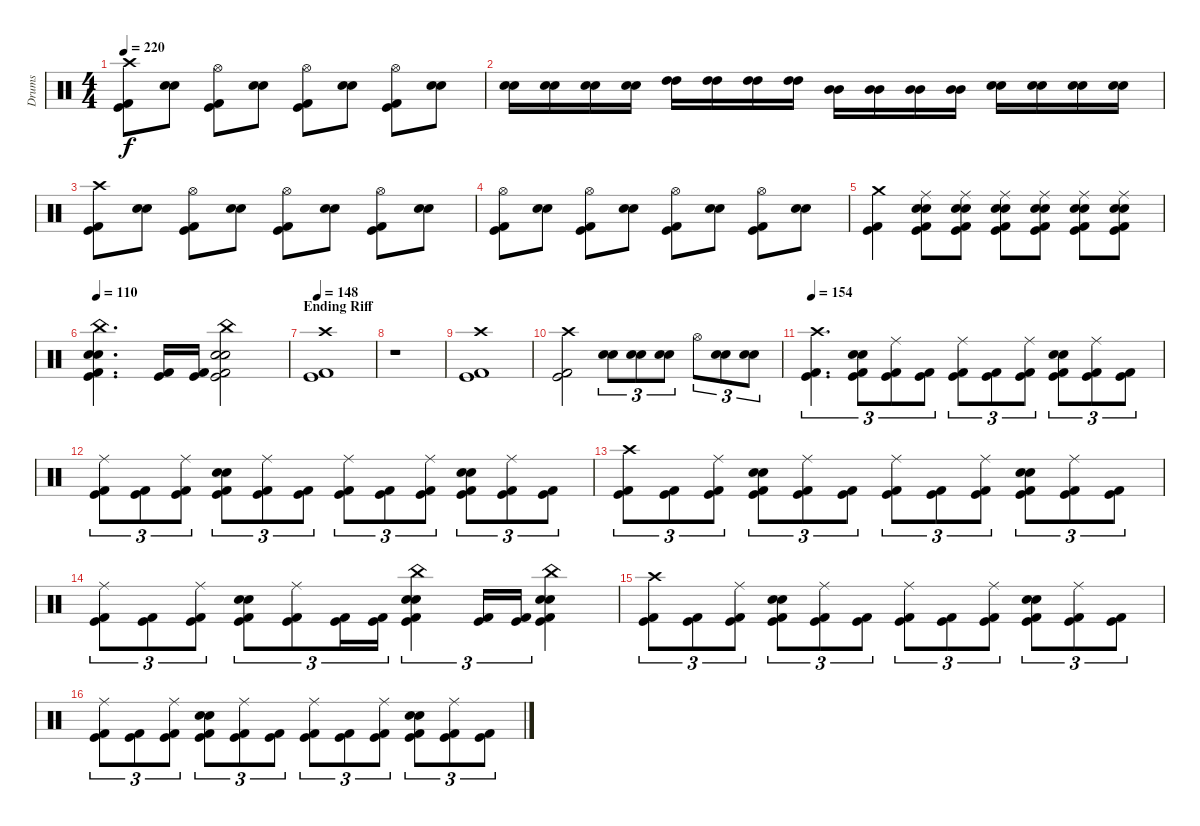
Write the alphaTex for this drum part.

\track ("Drums" "Drums") {instrument percussion}
\staff {score}
\articulation defaults
\ts (4 4)
\tempo 220
\clef neutral
\ks c
("Crash high (hit)" "Kick (hit) 2" "Kick (hit)").8{dy f} ("Electric Snare (hit)" "Electric Snare (hit)").8 ("Hi-Hat (open)" "Kick (hit) 2" "Kick (hit)").8 ("Electric Snare (hit)" "Electric Snare (hit)").8 ("Hi-Hat (open)" "Kick (hit) 2" "Kick (hit)").8 ("Electric Snare (hit)" "Electric Snare (hit)").8 ("Hi-Hat (open)" "Kick (hit) 2" "Kick (hit)").8 ("Electric Snare (hit)" "Electric Snare (hit)").8 |
("Electric Snare (hit)" "Electric Snare (hit)").16 ("Electric Snare (hit)" "Electric Snare (hit)").16 ("Electric Snare (hit)" "Electric Snare (hit)").16 ("Electric Snare (hit)" "Electric Snare (hit)").16 ("High Tom (hit)" "High Tom (hit)").16 ("High Tom (hit)" "High Tom (hit)").16 ("High Tom (hit)" "High Tom (hit)").16 ("High Tom (hit)" "High Tom (hit)").16 ("Mid Tom (hit)" "Mid Tom (hit)").16 ("Mid Tom (hit)" "Mid Tom (hit)").16 ("Mid Tom (hit)" "Mid Tom (hit)").16 ("Mid Tom (hit)" "Mid Tom (hit)").16 ("Electric Snare (hit)" "Electric Snare (hit)").16 ("Electric Snare (hit)" "Electric Snare (hit)").16 ("Electric Snare (hit)" "Electric Snare (hit)").16 ("Electric Snare (hit)" "Electric Snare (hit)").16 |
("Crash high (hit)" "Kick (hit) 2" "Kick (hit)").8 ("Electric Snare (hit)" "Electric Snare (hit)").8 ("Hi-Hat (open)" "Kick (hit) 2" "Kick (hit)").8 ("Electric Snare (hit)" "Electric Snare (hit)").8 ("Hi-Hat (open)" "Kick (hit) 2" "Kick (hit)").8 ("Electric Snare (hit)" "Electric Snare (hit)").8 ("Hi-Hat (open)" "Kick (hit) 2" "Kick (hit)").8 ("Electric Snare (hit)" "Electric Snare (hit)").8 |
("Hi-Hat (open)" "Kick (hit) 2" "Kick (hit)").8 ("Electric Snare (hit)" "Electric Snare (hit)").8 ("Hi-Hat (open)" "Kick (hit) 2" "Kick (hit)").8 ("Electric Snare (hit)" "Electric Snare (hit)").8 ("Hi-Hat (open)" "Kick (hit) 2" "Kick (hit)").8 ("Electric Snare (hit)" "Electric Snare (hit)").8 ("Hi-Hat (open)" "Kick (hit) 2" "Kick (hit)").8 ("Electric Snare (hit)" "Electric Snare (hit)").8 |
("Crash medium (hit)" "Kick (hit) 2" "Kick (hit)").4 ("Ride (middle)" "Electric Snare (hit)" "Electric Snare (hit)" "Kick (hit) 2" "Kick (hit)").8 ("Ride (middle)" "Electric Snare (hit)" "Electric Snare (hit)" "Kick (hit) 2" "Kick (hit)").8 ("Ride (middle)" "Electric Snare (hit)" "Electric Snare (hit)" "Kick (hit) 2" "Kick (hit)").8 ("Ride (middle)" "Electric Snare (hit)" "Electric Snare (hit)" "Kick (hit) 2" "Kick (hit)").8 ("Ride (middle)" "Electric Snare (hit)" "Electric Snare (hit)" "Kick (hit) 2" "Kick (hit)").8 ("Ride (middle)" "Electric Snare (hit)" "Electric Snare (hit)" "Kick (hit) 2" "Kick (hit)").8 |
\tempo 110
("China (hit)" "Electric Snare (hit)" "Electric Snare (hit)" "Kick (hit) 2" "Kick (hit)").4{d} ("Kick (hit) 2" "Kick (hit)").16 ("Kick (hit) 2" "Kick (hit)").16 ("China (hit)" "Electric Snare (hit)" "Electric Snare (hit)" "Kick (hit) 2" "Kick (hit)").2 |
\section ("" "Ending Riff")
\tempo 148
("Crash high (hit)" "Kick (hit) 2" "Kick (hit)").1 |
r.1 |
("Crash high (hit)" "Kick (hit) 2" "Kick (hit)").1 |
("Crash high (hit)" "Kick (hit) 2" "Kick (hit)").2 ("Electric Snare (hit)" "Electric Snare (hit)").8{tu (3 2)} ("Electric Snare (hit)" "Electric Snare (hit)").8{tu (3 2)} ("Electric Snare (hit)" "Electric Snare (hit)").8{tu (3 2)} "Hi-Hat (open)".8{tu (3 2)} ("Electric Snare (hit)" "Electric Snare (hit)").8{tu (3 2)} ("Electric Snare (hit)" "Electric Snare (hit)").8{tu (3 2)} |
\tempo 154
("Crash high (hit)" "Kick (hit) 2" "Kick (hit)").4{d tu (3 2)} ("Electric Snare (hit)" "Electric Snare (hit)" "Kick (hit) 2" "Kick (hit)").8{tu (3 2)} ("Ride (middle)" "Kick (hit) 2" "Kick (hit)").8{tu (3 2)} ("Kick (hit) 2" "Kick (hit)").8{tu (3 2)} ("Ride (middle)" "Kick (hit) 2" "Kick (hit)").8{tu (3 2)} ("Kick (hit) 2" "Kick (hit)").8{tu (3 2)} ("Ride (middle)" "Kick (hit) 2" "Kick (hit)").8{tu (3 2)} ("Electric Snare (hit)" "Electric Snare (hit)" "Kick (hit) 2" "Kick (hit)").8{tu (3 2)} ("Ride (middle)" "Kick (hit) 2" "Kick (hit)").8{tu (3 2)} ("Kick (hit) 2" "Kick (hit)").8{tu (3 2)} |
("Ride (middle)" "Kick (hit) 2" "Kick (hit)").8{tu (3 2)} ("Kick (hit) 2" "Kick (hit)").8{tu (3 2)} ("Ride (middle)" "Kick (hit) 2" "Kick (hit)").8{tu (3 2)} ("Electric Snare (hit)" "Electric Snare (hit)" "Kick (hit) 2" "Kick (hit)").8{tu (3 2)} ("Ride (middle)" "Kick (hit) 2" "Kick (hit)").8{tu (3 2)} ("Kick (hit) 2" "Kick (hit)").8{tu (3 2)} ("Ride (middle)" "Kick (hit) 2" "Kick (hit)").8{tu (3 2)} ("Kick (hit) 2" "Kick (hit)").8{tu (3 2)} ("Ride (middle)" "Kick (hit) 2" "Kick (hit)").8{tu (3 2)} ("Electric Snare (hit)" "Electric Snare (hit)" "Kick (hit) 2" "Kick (hit)").8{tu (3 2)} ("Ride (middle)" "Kick (hit) 2" "Kick (hit)").8{tu (3 2)} ("Kick (hit) 2" "Kick (hit)").8{tu (3 2)} |
("Crash high (hit)" "Kick (hit) 2" "Kick (hit)").8{tu (3 2)} ("Kick (hit) 2" "Kick (hit)").8{tu (3 2)} ("Ride (middle)" "Kick (hit) 2" "Kick (hit)").8{tu (3 2)} ("Electric Snare (hit)" "Electric Snare (hit)" "Kick (hit) 2" "Kick (hit)").8{tu (3 2)} ("Ride (middle)" "Kick (hit) 2" "Kick (hit)").8{tu (3 2)} ("Kick (hit) 2" "Kick (hit)").8{tu (3 2)} ("Ride (middle)" "Kick (hit) 2" "Kick (hit)").8{tu (3 2)} ("Kick (hit) 2" "Kick (hit)").8{tu (3 2)} ("Ride (middle)" "Kick (hit) 2" "Kick (hit)").8{tu (3 2)} ("Electric Snare (hit)" "Electric Snare (hit)" "Kick (hit) 2" "Kick (hit)").8{tu (3 2)} ("Ride (middle)" "Kick (hit) 2" "Kick (hit)").8{tu (3 2)} ("Kick (hit) 2" "Kick (hit)").8{tu (3 2)} |
("Ride (middle)" "Kick (hit) 2" "Kick (hit)").8{tu (3 2)} ("Kick (hit) 2" "Kick (hit)").8{tu (3 2)} ("Ride (middle)" "Kick (hit) 2" "Kick (hit)").8{tu (3 2)} ("Electric Snare (hit)" "Electric Snare (hit)" "Kick (hit) 2" "Kick (hit)").8{tu (3 2)} ("Ride (middle)" "Kick (hit) 2" "Kick (hit)").8{tu (3 2)} ("Kick (hit) 2" "Kick (hit)").16{tu (3 2)} ("Kick (hit) 2" "Kick (hit)").16{tu (3 2)} ("China (hit)" "Electric Snare (hit)" "Electric Snare (hit)" "Kick (hit) 2" "Kick (hit)").4{tu (3 2)} ("Kick (hit) 2" "Kick (hit)").16{tu (3 2)} ("Kick (hit) 2" "Kick (hit)").16{tu (3 2)} ("China (hit)" "Electric Snare (hit)" "Electric Snare (hit)" "Kick (hit) 2" "Kick (hit)").4 |
("Crash high (hit)" "Kick (hit) 2" "Kick (hit)").8{tu (3 2)} ("Kick (hit) 2" "Kick (hit)").8{tu (3 2)} ("Ride (middle)" "Kick (hit) 2" "Kick (hit)").8{tu (3 2)} ("Electric Snare (hit)" "Electric Snare (hit)" "Kick (hit) 2" "Kick (hit)").8{tu (3 2)} ("Ride (middle)" "Kick (hit) 2" "Kick (hit)").8{tu (3 2)} ("Kick (hit) 2" "Kick (hit)").8{tu (3 2)} ("Ride (middle)" "Kick (hit) 2" "Kick (hit)").8{tu (3 2)} ("Kick (hit) 2" "Kick (hit)").8{tu (3 2)} ("Ride (middle)" "Kick (hit) 2" "Kick (hit)").8{tu (3 2)} ("Electric Snare (hit)" "Electric Snare (hit)" "Kick (hit) 2" "Kick (hit)").8{tu (3 2)} ("Ride (middle)" "Kick (hit) 2" "Kick (hit)").8{tu (3 2)} ("Kick (hit) 2" "Kick (hit)").8{tu (3 2)} |
("Ride (middle)" "Kick (hit) 2" "Kick (hit)").8{tu (3 2)} ("Kick (hit) 2" "Kick (hit)").8{tu (3 2)} ("Ride (middle)" "Kick (hit) 2" "Kick (hit)").8{tu (3 2)} ("Electric Snare (hit)" "Electric Snare (hit)" "Kick (hit) 2" "Kick (hit)").8{tu (3 2)} ("Ride (middle)" "Kick (hit) 2" "Kick (hit)").8{tu (3 2)} ("Kick (hit) 2" "Kick (hit)").8{tu (3 2)} ("Ride (middle)" "Kick (hit) 2" "Kick (hit)").8{tu (3 2)} ("Kick (hit) 2" "Kick (hit)").8{tu (3 2)} ("Ride (middle)" "Kick (hit) 2" "Kick (hit)").8{tu (3 2)} ("Electric Snare (hit)" "Electric Snare (hit)" "Kick (hit) 2" "Kick (hit)").8{tu (3 2)} ("Ride (middle)" "Kick (hit) 2" "Kick (hit)").8{tu (3 2)} ("Kick (hit) 2" "Kick (hit)").8{tu (3 2)}
